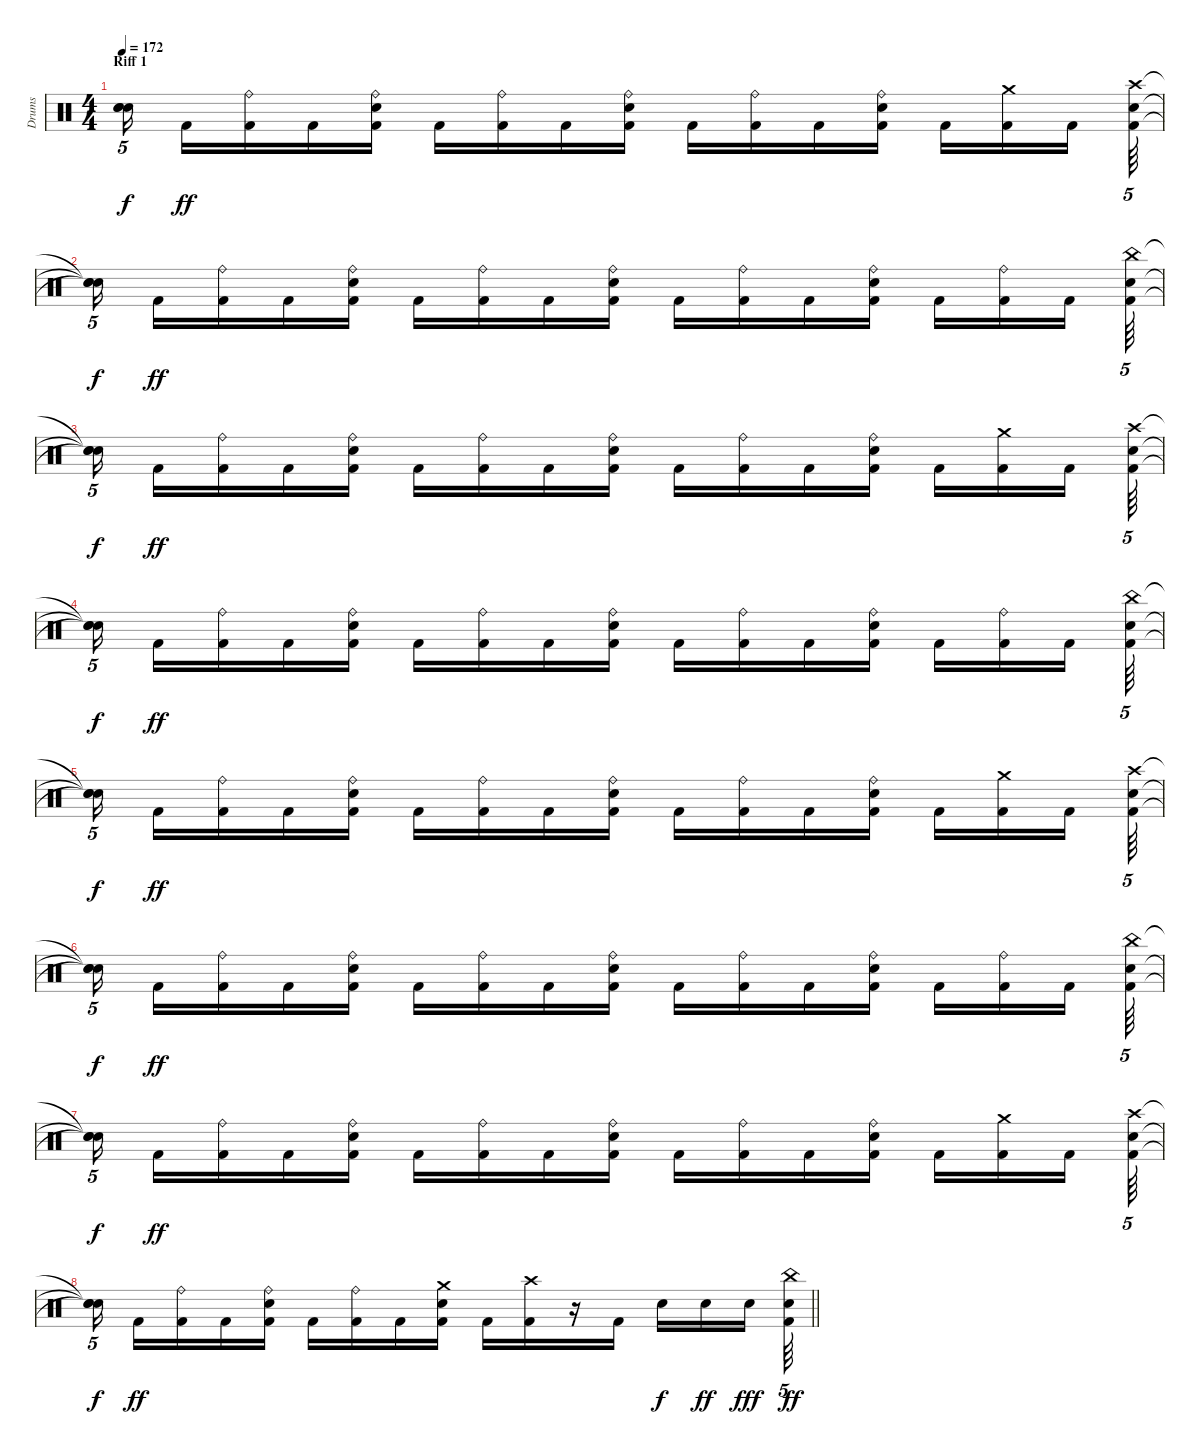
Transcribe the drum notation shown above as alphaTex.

\track ("Drums" "Drums") {instrument percussion}
\staff {score}
\articulation defaults
\ts (4 4)
\section ("" "Riff 1")
\tempo 172
\clef neutral
\ks c
("Snare (hit)"{t} "Snare (hit)"{t} "Snare (hit)"{t}).16{tu (5 4) dy f beam splitsecondary} "Kick (hit) 2".16{dy ff} ("Kick (hit) 2" "Ride (bell)").16 "Kick (hit) 2".16 ("Kick (hit) 2" "Snare (hit) 2" "Ride (bell)").16 "Kick (hit) 2".16 ("Kick (hit) 2" "Ride (bell)").16 "Kick (hit) 2".16 ("Kick (hit) 2" "Snare (hit) 2" "Ride (bell)").16 "Kick (hit) 2".16 ("Kick (hit) 2" "Ride (bell)").16 "Kick (hit) 2".16 ("Kick (hit) 2" "Snare (hit) 2" "Ride (bell)").16 "Kick (hit) 2".16 ("Crash medium (hit)" "Kick (hit) 2").16 "Kick (hit) 2".16{beam splitsecondary} ("Crash high (hit)" "Kick (hit) 2" "Snare (hit) 2").64{tu (5 4)} |
("Snare (hit)"{t} "Snare (hit)"{t} "Snare (hit)"{t}).16{tu (5 4) dy f beam splitsecondary} "Kick (hit) 2".16{dy ff} ("Kick (hit) 2" "Ride (bell)").16 "Kick (hit) 2".16 ("Kick (hit) 2" "Snare (hit) 2" "Ride (bell)").16 "Kick (hit) 2".16 ("Kick (hit) 2" "Ride (bell)").16 "Kick (hit) 2".16 ("Kick (hit) 2" "Snare (hit) 2" "Ride (bell)").16 "Kick (hit) 2".16 ("Kick (hit) 2" "Ride (bell)").16 "Kick (hit) 2".16 ("Kick (hit) 2" "Snare (hit) 2" "Ride (bell)").16 "Kick (hit) 2".16 ("Kick (hit) 2" "Ride (bell)").16 "Kick (hit) 2".16{beam splitsecondary} ("China (hit)" "Kick (hit) 2" "Snare (hit) 2").64{tu (5 4)} |
("Snare (hit)"{t} "Snare (hit)"{t} "Snare (hit)"{t}).16{tu (5 4) dy f beam splitsecondary} "Kick (hit) 2".16{dy ff} ("Kick (hit) 2" "Ride (bell)").16 "Kick (hit) 2".16 ("Kick (hit) 2" "Snare (hit) 2" "Ride (bell)").16 "Kick (hit) 2".16 ("Kick (hit) 2" "Ride (bell)").16 "Kick (hit) 2".16 ("Kick (hit) 2" "Snare (hit) 2" "Ride (bell)").16 "Kick (hit) 2".16 ("Kick (hit) 2" "Ride (bell)").16 "Kick (hit) 2".16 ("Kick (hit) 2" "Snare (hit) 2" "Ride (bell)").16 "Kick (hit) 2".16 ("Crash medium (hit)" "Kick (hit) 2").16 "Kick (hit) 2".16{beam splitsecondary} ("Crash high (hit)" "Kick (hit) 2" "Snare (hit) 2").64{tu (5 4)} |
("Snare (hit)"{t} "Snare (hit)"{t} "Snare (hit)"{t}).16{tu (5 4) dy f beam splitsecondary} "Kick (hit) 2".16{dy ff} ("Kick (hit) 2" "Ride (bell)").16 "Kick (hit) 2".16 ("Kick (hit) 2" "Snare (hit) 2" "Ride (bell)").16 "Kick (hit) 2".16 ("Kick (hit) 2" "Ride (bell)").16 "Kick (hit) 2".16 ("Kick (hit) 2" "Snare (hit) 2" "Ride (bell)").16 "Kick (hit) 2".16 ("Kick (hit) 2" "Ride (bell)").16 "Kick (hit) 2".16 ("Kick (hit) 2" "Snare (hit) 2" "Ride (bell)").16 "Kick (hit) 2".16 ("Kick (hit) 2" "Ride (bell)").16 "Kick (hit) 2".16{beam splitsecondary} ("China (hit)" "Kick (hit) 2" "Snare (hit) 2").64{tu (5 4)} |
("Snare (hit)"{t} "Snare (hit)"{t} "Snare (hit)"{t}).16{tu (5 4) dy f beam splitsecondary} "Kick (hit) 2".16{dy ff} ("Kick (hit) 2" "Ride (bell)").16 "Kick (hit) 2".16 ("Kick (hit) 2" "Snare (hit) 2" "Ride (bell)").16 "Kick (hit) 2".16 ("Kick (hit) 2" "Ride (bell)").16 "Kick (hit) 2".16 ("Kick (hit) 2" "Snare (hit) 2" "Ride (bell)").16 "Kick (hit) 2".16 ("Kick (hit) 2" "Ride (bell)").16 "Kick (hit) 2".16 ("Kick (hit) 2" "Snare (hit) 2" "Ride (bell)").16 "Kick (hit) 2".16 ("Crash medium (hit)" "Kick (hit) 2").16 "Kick (hit) 2".16{beam splitsecondary} ("Crash high (hit)" "Kick (hit) 2" "Snare (hit) 2").64{tu (5 4)} |
("Snare (hit)"{t} "Snare (hit)"{t} "Snare (hit)"{t}).16{tu (5 4) dy f beam splitsecondary} "Kick (hit) 2".16{dy ff} ("Kick (hit) 2" "Ride (bell)").16 "Kick (hit) 2".16 ("Kick (hit) 2" "Snare (hit) 2" "Ride (bell)").16 "Kick (hit) 2".16 ("Kick (hit) 2" "Ride (bell)").16 "Kick (hit) 2".16 ("Kick (hit) 2" "Snare (hit) 2" "Ride (bell)").16 "Kick (hit) 2".16 ("Kick (hit) 2" "Ride (bell)").16 "Kick (hit) 2".16 ("Kick (hit) 2" "Snare (hit) 2" "Ride (bell)").16 "Kick (hit) 2".16 ("Kick (hit) 2" "Ride (bell)").16 "Kick (hit) 2".16{beam splitsecondary} ("China (hit)" "Kick (hit) 2" "Snare (hit) 2").64{tu (5 4)} |
("Snare (hit)"{t} "Snare (hit)"{t} "Snare (hit)"{t}).16{tu (5 4) dy f beam splitsecondary} "Kick (hit) 2".16{dy ff} ("Kick (hit) 2" "Ride (bell)").16 "Kick (hit) 2".16 ("Kick (hit) 2" "Snare (hit) 2" "Ride (bell)").16 "Kick (hit) 2".16 ("Kick (hit) 2" "Ride (bell)").16 "Kick (hit) 2".16 ("Kick (hit) 2" "Snare (hit) 2" "Ride (bell)").16 "Kick (hit) 2".16 ("Kick (hit) 2" "Ride (bell)").16 "Kick (hit) 2".16 ("Kick (hit) 2" "Snare (hit) 2" "Ride (bell)").16 "Kick (hit) 2".16 ("Crash medium (hit)" "Kick (hit) 2").16 "Kick (hit) 2".16{beam splitsecondary} ("Crash high (hit)" "Kick (hit) 2" "Snare (hit) 2").64{tu (5 4)} |
\barLineRight lightlight
("Snare (hit)"{t} "Snare (hit)"{t} "Snare (hit)"{t}).16{tu (5 4) dy f beam splitsecondary} "Kick (hit) 2".16{dy ff} ("Kick (hit) 2" "Ride (bell)").16 "Kick (hit) 2".16 ("Kick (hit) 2" "Snare (hit) 2" "Ride (bell)").16 "Kick (hit) 2".16 ("Kick (hit) 2" "Ride (bell)").16 "Kick (hit) 2".16 ("Crash medium (hit)" "Kick (hit) 2" "Snare (hit) 2").16 "Kick (hit) 2".16 ("Crash high (hit)" "Kick (hit) 2").16 r.16 "Kick (hit) 2".16 "Snare (hit) 2".16{dy f} "Snare (hit) 2".16{dy ff} "Snare (hit) 2".16{dy fff beam splitsecondary} ("China (hit)" "Kick (hit) 2" "Snare (hit) 2").64{tu (5 4) dy ff}
